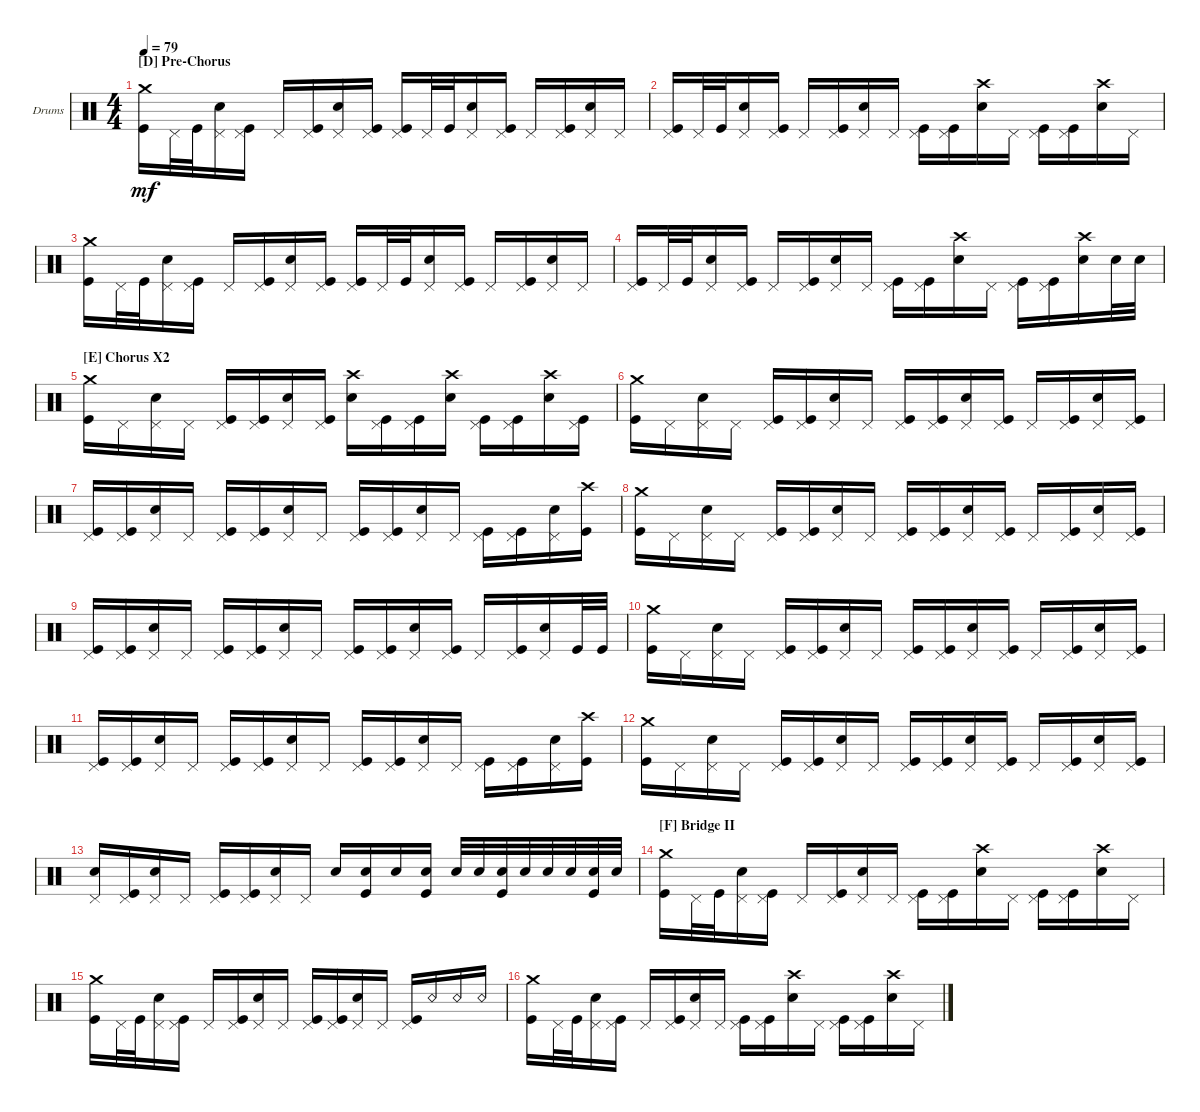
\defaultSystemsLayout 4
\bracketExtendMode groupsimilarinstruments
\firstSystemTrackNameOrientation horizontal
\otherSystemsTrackNameOrientation horizontal
\track ("Drums" "Drums") {instrument percussion}
\staff {score}
\articulation defaults
\ts (4 4)
\section ("D" "Pre-Chorus")
\tempo 79
\clef neutral
\ks c
("Kick (hit)" "Crash medium (hit)").16{dy mf} "Pedal Hi-Hat (hit)".32 "Kick (hit)".32{beam merge} ("Pedal Hi-Hat (hit)" "Snare (hit) 2").16 ("Pedal Hi-Hat (hit)" "Kick (hit)").16 "Pedal Hi-Hat (hit)".16 ("Pedal Hi-Hat (hit)" "Kick (hit)").16{beam merge} ("Pedal Hi-Hat (hit)" "Snare (hit) 2").16 ("Pedal Hi-Hat (hit)" "Kick (hit)").16 ("Kick (hit)" "Pedal Hi-Hat (hit)").16 "Pedal Hi-Hat (hit)".32 "Kick (hit)".32{beam merge} ("Pedal Hi-Hat (hit)" "Snare (hit) 2").16 ("Pedal Hi-Hat (hit)" "Kick (hit)").16 "Pedal Hi-Hat (hit)".16 ("Pedal Hi-Hat (hit)" "Kick (hit)").16{beam merge} ("Pedal Hi-Hat (hit)" "Snare (hit) 2").16 "Pedal Hi-Hat (hit)".16 |
("Kick (hit)" "Pedal Hi-Hat (hit)").16 "Pedal Hi-Hat (hit)".32 "Kick (hit)".32 ("Pedal Hi-Hat (hit)" "Snare (hit) 2").16 ("Pedal Hi-Hat (hit)" "Kick (hit)").16 "Pedal Hi-Hat (hit)".16 ("Pedal Hi-Hat (hit)" "Kick (hit)").16 ("Pedal Hi-Hat (hit)" "Snare (hit) 2").16 "Pedal Hi-Hat (hit)".16 ("Kick (hit)" "Pedal Hi-Hat (hit)").16 ("Pedal Hi-Hat (hit)" "Kick (hit)").16{beam merge} ("Snare (hit) 2" "Crash high (hit)").16 "Pedal Hi-Hat (hit)".16 ("Pedal Hi-Hat (hit)" "Kick (hit)").16 ("Pedal Hi-Hat (hit)" "Kick (hit)").16{beam merge} ("Snare (hit) 2" "Crash high (hit)").16 "Pedal Hi-Hat (hit)".16 |
("Kick (hit)" "Crash medium (hit)").16 "Pedal Hi-Hat (hit)".32 "Kick (hit)".32{beam merge} ("Pedal Hi-Hat (hit)" "Snare (hit) 2").16 ("Pedal Hi-Hat (hit)" "Kick (hit)").16 "Pedal Hi-Hat (hit)".16 ("Pedal Hi-Hat (hit)" "Kick (hit)").16{beam merge} ("Pedal Hi-Hat (hit)" "Snare (hit) 2").16 ("Pedal Hi-Hat (hit)" "Kick (hit)").16 ("Kick (hit)" "Pedal Hi-Hat (hit)").16 "Pedal Hi-Hat (hit)".32 "Kick (hit)".32{beam merge} ("Pedal Hi-Hat (hit)" "Snare (hit) 2").16 ("Pedal Hi-Hat (hit)" "Kick (hit)").16 "Pedal Hi-Hat (hit)".16 ("Pedal Hi-Hat (hit)" "Kick (hit)").16{beam merge} ("Pedal Hi-Hat (hit)" "Snare (hit) 2").16 "Pedal Hi-Hat (hit)".16 |
("Kick (hit)" "Pedal Hi-Hat (hit)").16 "Pedal Hi-Hat (hit)".32 "Kick (hit)".32 ("Pedal Hi-Hat (hit)" "Snare (hit) 2").16 ("Pedal Hi-Hat (hit)" "Kick (hit)").16 "Pedal Hi-Hat (hit)".16 ("Pedal Hi-Hat (hit)" "Kick (hit)").16 ("Pedal Hi-Hat (hit)" "Snare (hit) 2").16 "Pedal Hi-Hat (hit)".16 ("Kick (hit)" "Pedal Hi-Hat (hit)").16 ("Pedal Hi-Hat (hit)" "Kick (hit)").16{beam merge} ("Snare (hit) 2" "Crash high (hit)").16 "Pedal Hi-Hat (hit)".16 ("Pedal Hi-Hat (hit)" "Kick (hit)").16 ("Pedal Hi-Hat (hit)" "Kick (hit)").16{beam merge} ("Snare (hit) 2" "Crash high (hit)").16 "Snare (hit) 2".32 "Snare (hit) 2".32 |
\section ("E" "Chorus X2")
("Kick (hit)" "Crash medium (hit)").16 "Pedal Hi-Hat (hit)".16{beam merge} ("Pedal Hi-Hat (hit)" "Snare (hit) 2").16 "Pedal Hi-Hat (hit)".16 ("Pedal Hi-Hat (hit)" "Kick (hit)").16 ("Pedal Hi-Hat (hit)" "Kick (hit)").16{beam merge} ("Pedal Hi-Hat (hit)" "Snare (hit) 2").16 ("Pedal Hi-Hat (hit)" "Kick (hit)").16 ("Snare (hit) 2" "Crash high (hit)").16 ("Pedal Hi-Hat (hit)" "Kick (hit)").16{beam merge} ("Pedal Hi-Hat (hit)" "Kick (hit)").16 ("Snare (hit) 2" "Crash high (hit)").16 ("Pedal Hi-Hat (hit)" "Kick (hit)").16 ("Pedal Hi-Hat (hit)" "Kick (hit)").16{beam merge} ("Snare (hit) 2" "Crash high (hit)").16 ("Pedal Hi-Hat (hit)" "Kick (hit)").16 |
("Kick (hit)" "Crash medium (hit)").16 "Pedal Hi-Hat (hit)".16{beam merge} ("Pedal Hi-Hat (hit)" "Snare (hit) 2").16 "Pedal Hi-Hat (hit)".16 ("Pedal Hi-Hat (hit)" "Kick (hit)").16 ("Pedal Hi-Hat (hit)" "Kick (hit)").16{beam merge} ("Pedal Hi-Hat (hit)" "Snare (hit) 2").16 "Pedal Hi-Hat (hit)".16 ("Kick (hit)" "Pedal Hi-Hat (hit)").16 ("Pedal Hi-Hat (hit)" "Kick (hit)").16{beam merge} ("Pedal Hi-Hat (hit)" "Snare (hit) 2").16 ("Pedal Hi-Hat (hit)" "Kick (hit)").16 "Pedal Hi-Hat (hit)".16 ("Pedal Hi-Hat (hit)" "Kick (hit)").16{beam merge} ("Pedal Hi-Hat (hit)" "Snare (hit) 2").16 ("Pedal Hi-Hat (hit)" "Kick (hit)").16 |
("Kick (hit)" "Pedal Hi-Hat (hit)").16 ("Pedal Hi-Hat (hit)" "Kick (hit)").16{beam merge} ("Pedal Hi-Hat (hit)" "Snare (hit) 2").16 "Pedal Hi-Hat (hit)".16 ("Pedal Hi-Hat (hit)" "Kick (hit)").16 ("Pedal Hi-Hat (hit)" "Kick (hit)").16{beam merge} ("Pedal Hi-Hat (hit)" "Snare (hit) 2").16 "Pedal Hi-Hat (hit)".16 ("Kick (hit)" "Pedal Hi-Hat (hit)").16 ("Pedal Hi-Hat (hit)" "Kick (hit)").16{beam merge} ("Pedal Hi-Hat (hit)" "Snare (hit) 2").16 "Pedal Hi-Hat (hit)".16 ("Pedal Hi-Hat (hit)" "Kick (hit)").16 ("Pedal Hi-Hat (hit)" "Kick (hit)").16{beam merge} ("Pedal Hi-Hat (hit)" "Snare (hit) 2").16 ("Kick (hit)" "Crash high (hit)").16 |
("Kick (hit)" "Crash medium (hit)").16 "Pedal Hi-Hat (hit)".16{beam merge} ("Pedal Hi-Hat (hit)" "Snare (hit) 2").16 "Pedal Hi-Hat (hit)".16 ("Pedal Hi-Hat (hit)" "Kick (hit)").16 ("Pedal Hi-Hat (hit)" "Kick (hit)").16{beam merge} ("Pedal Hi-Hat (hit)" "Snare (hit) 2").16 "Pedal Hi-Hat (hit)".16 ("Kick (hit)" "Pedal Hi-Hat (hit)").16 ("Pedal Hi-Hat (hit)" "Kick (hit)").16{beam merge} ("Pedal Hi-Hat (hit)" "Snare (hit) 2").16 ("Pedal Hi-Hat (hit)" "Kick (hit)").16 "Pedal Hi-Hat (hit)".16 ("Pedal Hi-Hat (hit)" "Kick (hit)").16{beam merge} ("Pedal Hi-Hat (hit)" "Snare (hit) 2").16 ("Pedal Hi-Hat (hit)" "Kick (hit)").16 |
("Kick (hit)" "Pedal Hi-Hat (hit)").16 ("Pedal Hi-Hat (hit)" "Kick (hit)").16{beam merge} ("Pedal Hi-Hat (hit)" "Snare (hit) 2").16 "Pedal Hi-Hat (hit)".16 ("Pedal Hi-Hat (hit)" "Kick (hit)").16 ("Pedal Hi-Hat (hit)" "Kick (hit)").16{beam merge} ("Pedal Hi-Hat (hit)" "Snare (hit) 2").16 "Pedal Hi-Hat (hit)".16 ("Kick (hit)" "Pedal Hi-Hat (hit)").16 ("Pedal Hi-Hat (hit)" "Kick (hit)").16{beam merge} ("Pedal Hi-Hat (hit)" "Snare (hit) 2").16 ("Pedal Hi-Hat (hit)" "Kick (hit)").16 "Pedal Hi-Hat (hit)".16 ("Pedal Hi-Hat (hit)" "Kick (hit)").16{beam merge} ("Pedal Hi-Hat (hit)" "Snare (hit) 2").16 "Kick (hit)".32 "Kick (hit)".32 |
("Kick (hit)" "Crash medium (hit)").16 "Pedal Hi-Hat (hit)".16{beam merge} ("Pedal Hi-Hat (hit)" "Snare (hit) 2").16 "Pedal Hi-Hat (hit)".16 ("Pedal Hi-Hat (hit)" "Kick (hit)").16 ("Pedal Hi-Hat (hit)" "Kick (hit)").16{beam merge} ("Pedal Hi-Hat (hit)" "Snare (hit) 2").16 "Pedal Hi-Hat (hit)".16 ("Kick (hit)" "Pedal Hi-Hat (hit)").16 ("Pedal Hi-Hat (hit)" "Kick (hit)").16{beam merge} ("Pedal Hi-Hat (hit)" "Snare (hit) 2").16 ("Pedal Hi-Hat (hit)" "Kick (hit)").16 "Pedal Hi-Hat (hit)".16 ("Pedal Hi-Hat (hit)" "Kick (hit)").16{beam merge} ("Pedal Hi-Hat (hit)" "Snare (hit) 2").16 ("Pedal Hi-Hat (hit)" "Kick (hit)").16 |
("Kick (hit)" "Pedal Hi-Hat (hit)").16 ("Pedal Hi-Hat (hit)" "Kick (hit)").16{beam merge} ("Pedal Hi-Hat (hit)" "Snare (hit) 2").16 "Pedal Hi-Hat (hit)".16 ("Pedal Hi-Hat (hit)" "Kick (hit)").16 ("Pedal Hi-Hat (hit)" "Kick (hit)").16{beam merge} ("Pedal Hi-Hat (hit)" "Snare (hit) 2").16 "Pedal Hi-Hat (hit)".16 ("Kick (hit)" "Pedal Hi-Hat (hit)").16 ("Pedal Hi-Hat (hit)" "Kick (hit)").16{beam merge} ("Pedal Hi-Hat (hit)" "Snare (hit) 2").16 "Pedal Hi-Hat (hit)".16 ("Pedal Hi-Hat (hit)" "Kick (hit)").16 ("Pedal Hi-Hat (hit)" "Kick (hit)").16{beam merge} ("Pedal Hi-Hat (hit)" "Snare (hit) 2").16 ("Kick (hit)" "Crash high (hit)").16 |
("Kick (hit)" "Crash medium (hit)").16 "Pedal Hi-Hat (hit)".16{beam merge} ("Pedal Hi-Hat (hit)" "Snare (hit) 2").16 "Pedal Hi-Hat (hit)".16 ("Pedal Hi-Hat (hit)" "Kick (hit)").16 ("Pedal Hi-Hat (hit)" "Kick (hit)").16{beam merge} ("Pedal Hi-Hat (hit)" "Snare (hit) 2").16 "Pedal Hi-Hat (hit)".16 ("Kick (hit)" "Pedal Hi-Hat (hit)").16 ("Pedal Hi-Hat (hit)" "Kick (hit)").16{beam merge} ("Pedal Hi-Hat (hit)" "Snare (hit) 2").16 ("Pedal Hi-Hat (hit)" "Kick (hit)").16 "Pedal Hi-Hat (hit)".16 ("Pedal Hi-Hat (hit)" "Kick (hit)").16{beam merge} ("Pedal Hi-Hat (hit)" "Snare (hit) 2").16 ("Pedal Hi-Hat (hit)" "Kick (hit)").16 |
("Pedal Hi-Hat (hit)" "Snare (hit) 2").16 ("Pedal Hi-Hat (hit)" "Kick (hit)").16{beam merge} ("Pedal Hi-Hat (hit)" "Snare (hit) 2").16 "Pedal Hi-Hat (hit)".16 ("Pedal Hi-Hat (hit)" "Kick (hit)").16 ("Pedal Hi-Hat (hit)" "Kick (hit)").16{beam merge} ("Pedal Hi-Hat (hit)" "Snare (hit) 2").16 "Pedal Hi-Hat (hit)".16 "Snare (hit) 2".16 ("Snare (hit) 2" "Kick (hit)").16{beam merge} "Snare (hit) 2".16 ("Snare (hit) 2" "Kick (hit)").16 "Snare (hit) 2".32 "Snare (hit) 2".32{beam merge} ("Snare (hit) 2" "Kick (hit)").32 "Snare (hit) 2".32 "Snare (hit) 2".32{beam merge} "Snare (hit) 2".32 ("Snare (hit) 2" "Kick (hit)").32 "Snare (hit) 2".32 |
\section ("F" "Bridge II")
("Kick (hit)" "Crash medium (hit)").16 "Pedal Hi-Hat (hit)".32 "Kick (hit)".32{beam merge} ("Pedal Hi-Hat (hit)" "Snare (hit) 2").16 ("Pedal Hi-Hat (hit)" "Kick (hit)").16 "Pedal Hi-Hat (hit)".16 ("Pedal Hi-Hat (hit)" "Kick (hit)").16{beam merge} ("Pedal Hi-Hat (hit)" "Snare (hit) 2").16 "Pedal Hi-Hat (hit)".16 ("Kick (hit)" "Pedal Hi-Hat (hit)").16 ("Pedal Hi-Hat (hit)" "Kick (hit)").16{beam merge} ("Snare (hit) 2" "Crash high (hit)").16 "Pedal Hi-Hat (hit)".16 ("Pedal Hi-Hat (hit)" "Kick (hit)").16 ("Pedal Hi-Hat (hit)" "Kick (hit)").16{beam merge} ("Snare (hit) 2" "Crash high (hit)").16 "Pedal Hi-Hat (hit)".16 |
("Kick (hit)" "Crash medium (hit)").16 "Pedal Hi-Hat (hit)".32 "Kick (hit)".32{beam merge} ("Pedal Hi-Hat (hit)" "Snare (hit) 2").16 ("Pedal Hi-Hat (hit)" "Kick (hit)").16 "Pedal Hi-Hat (hit)".16 ("Pedal Hi-Hat (hit)" "Kick (hit)").16{beam merge} ("Pedal Hi-Hat (hit)" "Snare (hit) 2").16 "Pedal Hi-Hat (hit)".16 ("Kick (hit)" "Pedal Hi-Hat (hit)").16 ("Pedal Hi-Hat (hit)" "Kick (hit)").16{beam merge} ("Snare (hit) 2" "Pedal Hi-Hat (hit)").16 "Pedal Hi-Hat (hit)".16 ("Pedal Hi-Hat (hit)" "Kick (hit)").16 "Snare (rim shot)".16{beam merge} "Snare (rim shot)".16{beam merge} "Snare (rim shot)".16 |
("Kick (hit)" "Crash medium (hit)").16 "Pedal Hi-Hat (hit)".32 "Kick (hit)".32{beam merge} ("Pedal Hi-Hat (hit)" "Snare (hit) 2").16 ("Pedal Hi-Hat (hit)" "Kick (hit)").16 "Pedal Hi-Hat (hit)".16 ("Pedal Hi-Hat (hit)" "Kick (hit)").16{beam merge} ("Pedal Hi-Hat (hit)" "Snare (hit) 2").16 "Pedal Hi-Hat (hit)".16 ("Kick (hit)" "Pedal Hi-Hat (hit)").16 ("Pedal Hi-Hat (hit)" "Kick (hit)").16{beam merge} ("Snare (hit) 2" "Crash high (hit)").16 "Pedal Hi-Hat (hit)".16 ("Pedal Hi-Hat (hit)" "Kick (hit)").16 ("Pedal Hi-Hat (hit)" "Kick (hit)").16{beam merge} ("Snare (hit) 2" "Crash high (hit)").16 "Pedal Hi-Hat (hit)".16
